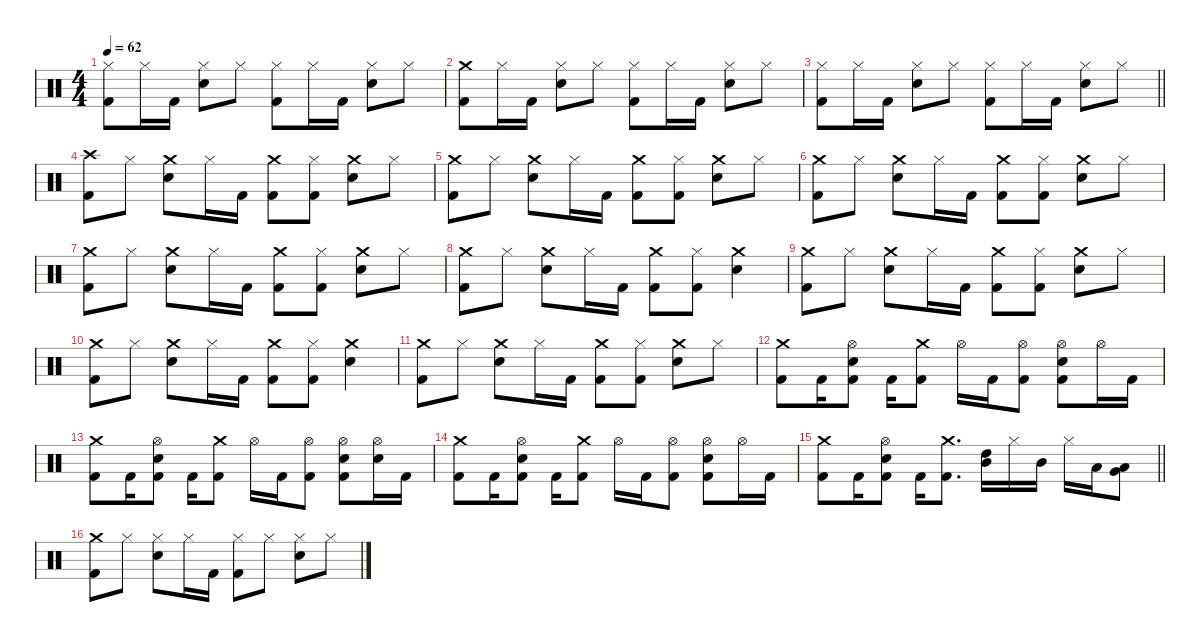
\defaultSystemsLayout 4
\hideDynamics
\bracketExtendMode nobrackets
\singleTrackTrackNamePolicy hidden
\multiTrackTrackNamePolicy hidden
\firstSystemTrackNameMode fullname
\otherSystemsTrackNameOrientation horizontal
\track ("Drums" "drm.") {defaultSystemsLayout 4 instrument percussion}
\staff {score}
\articulation defaults
\ts (4 4)
\tempo 62
\clef neutral
\ks c
("Hi-Hat (closed)" "Kick (hit) 2").8{dy f beam Down} "Hi-Hat (closed)".16{beam Down} "Kick (hit) 2".16{beam Down} ("Hi-Hat (closed)" "Snare (hit) 2").8{beam Down} "Hi-Hat (closed)".8{beam Down} ("Hi-Hat (closed)" "Kick (hit) 2").8{beam Down} "Hi-Hat (closed)".16{beam Down} "Kick (hit) 2".16{beam Down} ("Hi-Hat (closed)" "Snare (hit) 2").8{beam Down} "Hi-Hat (closed)".8{beam Down} |
("Crash medium (hit)" "Kick (hit) 2").8{beam Down} "Hi-Hat (closed)".16{beam Down} "Kick (hit) 2".16{beam Down} ("Hi-Hat (closed)" "Snare (hit) 2").8{beam Down} "Hi-Hat (closed)".8{beam Down} ("Hi-Hat (closed)" "Kick (hit) 2").8{beam Down} "Hi-Hat (closed)".16{beam Down} "Kick (hit) 2".16{beam Down} ("Hi-Hat (closed)" "Snare (hit) 2").8{beam Down} "Hi-Hat (closed)".8{beam Down} |
\barLineRight lightlight
("Hi-Hat (closed)" "Kick (hit) 2").8{beam Down} "Hi-Hat (closed)".16{beam Down} "Kick (hit) 2".16{beam Down} ("Hi-Hat (closed)" "Snare (hit) 2").8{beam Down} "Hi-Hat (closed)".8{beam Down} ("Hi-Hat (closed)" "Kick (hit) 2").8{beam Down} "Hi-Hat (closed)".16{beam Down} "Kick (hit) 2".16{beam Down} ("Hi-Hat (closed)" "Snare (hit) 2").8{beam Down} "Hi-Hat (closed)".8{beam Down} |
("Crash high (hit)" "Kick (hit) 2").8{beam Down} "Hi-Hat (closed)".8{beam Down} ("Crash medium (hit)" "Snare (hit) 2").8{beam Down} "Hi-Hat (closed)".16{beam Down} "Kick (hit) 2".16{beam Down} ("Crash medium (hit)" "Kick (hit) 2").8{beam Down} ("Hi-Hat (closed)" "Kick (hit) 2").8{beam Down} ("Crash medium (hit)" "Snare (hit) 2").8{beam Down} "Hi-Hat (closed)".8{beam Down} |
("Crash medium (hit)" "Kick (hit) 2").8{beam Down} "Hi-Hat (closed)".8{beam Down} ("Crash medium (hit)" "Snare (hit) 2").8{beam Down} "Hi-Hat (closed)".16{beam Down} "Kick (hit) 2".16{beam Down} ("Crash medium (hit)" "Kick (hit) 2").8{beam Down} ("Hi-Hat (closed)" "Kick (hit) 2").8{beam Down} ("Crash medium (hit)" "Snare (hit) 2").8{beam Down} "Hi-Hat (closed)".8{beam Down} |
("Crash medium (hit)" "Kick (hit) 2").8{beam Down} "Hi-Hat (closed)".8{beam Down} ("Crash medium (hit)" "Snare (hit) 2").8{beam Down} "Hi-Hat (closed)".16{beam Down} "Kick (hit) 2".16{beam Down} ("Crash medium (hit)" "Kick (hit) 2").8{beam Down} ("Hi-Hat (closed)" "Kick (hit) 2").8{beam Down} ("Crash medium (hit)" "Snare (hit) 2").8{beam Down} "Hi-Hat (closed)".8{beam Down} |
("Crash medium (hit)" "Kick (hit) 2").8{beam Down} "Hi-Hat (closed)".8{beam Down} ("Crash medium (hit)" "Snare (hit) 2").8{beam Down} "Hi-Hat (closed)".16{beam Down} "Kick (hit) 2".16{beam Down} ("Crash medium (hit)" "Kick (hit) 2").8{beam Down} ("Hi-Hat (closed)" "Kick (hit) 2").8{beam Down} ("Crash medium (hit)" "Snare (hit) 2").8{beam Down} "Hi-Hat (closed)".8{beam Down} |
("Crash medium (hit)" "Kick (hit) 2").8{beam Down} "Hi-Hat (closed)".8{beam Down} ("Crash medium (hit)" "Snare (hit) 2").8{beam Down} "Hi-Hat (closed)".16{beam Down} "Kick (hit) 2".16{beam Down} ("Crash medium (hit)" "Kick (hit) 2").8{beam Down} ("Hi-Hat (closed)" "Kick (hit) 2").8{beam Down} ("Crash medium (hit)" "Snare (hit) 2").4{beam Down} |
("Crash medium (hit)" "Kick (hit) 2").8{beam Down} "Hi-Hat (closed)".8{beam Down} ("Crash medium (hit)" "Snare (hit) 2").8{beam Down} "Hi-Hat (closed)".16{beam Down} "Kick (hit) 2".16{beam Down} ("Crash medium (hit)" "Kick (hit) 2").8{beam Down} ("Hi-Hat (closed)" "Kick (hit) 2").8{beam Down} ("Crash medium (hit)" "Snare (hit) 2").8{beam Down} "Hi-Hat (closed)".8{beam Down} |
("Crash medium (hit)" "Kick (hit) 2").8{beam Down} "Hi-Hat (closed)".8{beam Down} ("Crash medium (hit)" "Snare (hit) 2").8{beam Down} "Hi-Hat (closed)".16{beam Down} "Kick (hit) 2".16{beam Down} ("Crash medium (hit)" "Kick (hit) 2").8{beam Down} ("Hi-Hat (closed)" "Kick (hit) 2").8{beam Down} ("Crash medium (hit)" "Snare (hit) 2").4{beam Down} |
("Crash medium (hit)" "Kick (hit) 2").8{beam Down} "Hi-Hat (closed)".8{beam Down} ("Crash medium (hit)" "Snare (hit) 2").8{beam Down} "Hi-Hat (closed)".16{beam Down} "Kick (hit) 2".16{beam Down} ("Crash medium (hit)" "Kick (hit) 2").8{beam Down} ("Hi-Hat (closed)" "Kick (hit) 2").8{beam Down} ("Crash medium (hit)" "Snare (hit) 2").8{beam Down} "Hi-Hat (closed)".8{beam Down} |
("Crash medium (hit)" "Kick (hit) 2").8{beam Down} "Kick (hit) 2".16{beam Down} ("Hi-Hat (open)" "Snare (hit) 2" "Kick (hit) 2").8{beam Down} "Kick (hit) 2".16{beam Down} ("Crash medium (hit)" "Kick (hit) 2").8{beam Down} "Hi-Hat (open)".16{beam Down} "Kick (hit) 2".16{beam Down} ("Hi-Hat (open)" "Kick (hit) 2").8{beam Down} ("Hi-Hat (open)" "Snare (hit) 2" "Kick (hit) 2").8{beam Down} "Hi-Hat (open)".16{beam Down} "Kick (hit) 2".16{beam Down} |
("Crash medium (hit)" "Kick (hit) 2").8{beam Down} "Kick (hit) 2".16{beam Down} ("Hi-Hat (open)" "Snare (hit) 2" "Kick (hit) 2").8{beam Down} "Kick (hit) 2".16{beam Down} ("Crash medium (hit)" "Kick (hit) 2").8{beam Down} "Hi-Hat (open)".16{beam Down} "Kick (hit) 2".16{beam Down} ("Hi-Hat (open)" "Kick (hit) 2").8{beam Down} ("Hi-Hat (open)" "Snare (hit) 2" "Kick (hit) 2").8{beam Down} ("Hi-Hat (open)" "Snare (hit) 2").16{beam Down} "Kick (hit) 2".16{beam Down} |
("Crash medium (hit)" "Kick (hit) 2").8{beam Down} "Kick (hit) 2".16{beam Down} ("Hi-Hat (open)" "Snare (hit) 2" "Kick (hit) 2").8{beam Down} "Kick (hit) 2".16{beam Down} ("Crash medium (hit)" "Kick (hit) 2").8{beam Down} "Hi-Hat (open)".16{beam Down} "Kick (hit) 2".16{beam Down} ("Hi-Hat (open)" "Kick (hit) 2").8{beam Down} ("Hi-Hat (open)" "Snare (hit) 2" "Kick (hit) 2").8{beam Down} "Hi-Hat (open)".16{beam Down} "Kick (hit) 2".16{beam Down} |
\barLineRight lightlight
("Crash medium (hit)" "Kick (hit) 2").8{beam Down} "Kick (hit) 2".16{beam Down} ("Hi-Hat (open)" "Snare (hit) 2" "Kick (hit) 2").8{beam Down} "Kick (hit) 2".16{beam Down} ("Crash medium (hit)" "Kick (hit) 2").8{d beam Down} ("Mid Tom (hit)" "High Tom (hit)").16{beam Down} "Hi-Hat (closed)".16{beam Down} "Mid Tom (hit)".16{beam Down} "Hi-Hat (closed)".16{beam Down} "Low Tom (hit)".16{beam Down} ("Very Low Tom (hit)" "Low Floor Tom (hit)").8{beam Down} |
("Crash medium (hit)" "Kick (hit) 2").8{beam Down} "Hi-Hat (closed)".8{beam Down} ("Hi-Hat (closed)" "Snare (hit) 2").8{beam Down} "Hi-Hat (closed)".16{beam Down} "Kick (hit) 2".16{beam Down} ("Hi-Hat (closed)" "Kick (hit) 2").8{beam Down} "Hi-Hat (closed)".8{beam Down} ("Hi-Hat (closed)" "Snare (hit) 2").8{beam Down} "Hi-Hat (closed)".8{beam Down}
